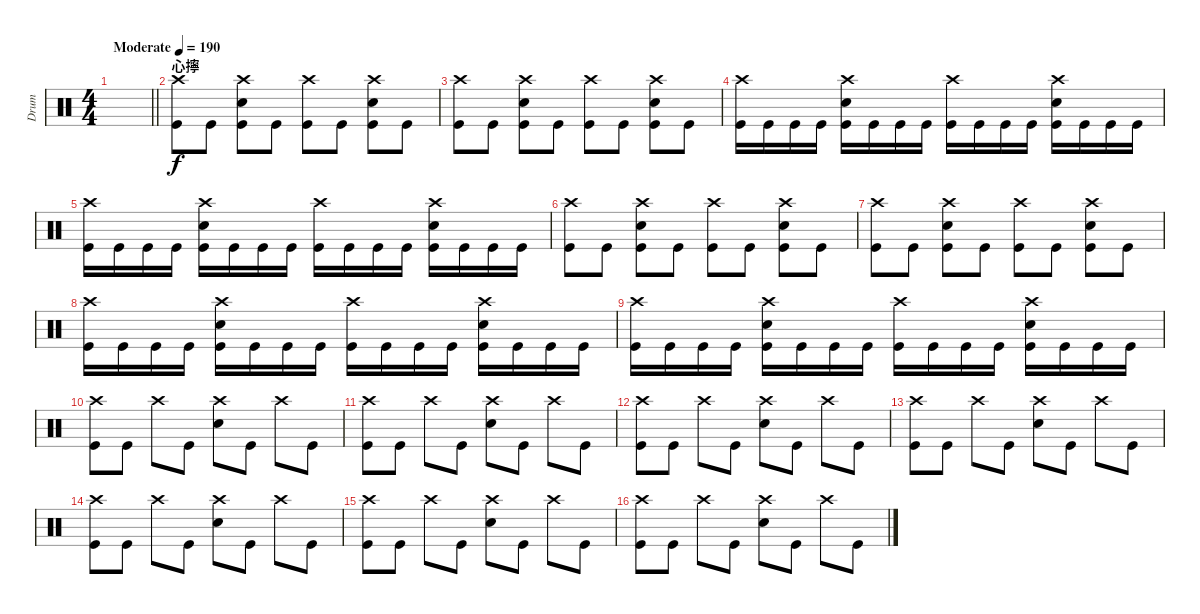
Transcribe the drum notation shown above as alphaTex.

\track ("Drum" "Drum") {instrument percussion}
\staff {score}
\articulation defaults
\ts (4 4)
\tempo (190 "Moderate")
\clef neutral
\barLineRight lightlight
\ks c
|
\section ("" "心擰")
("Crash high (hit)" "Kick (hit)").8 "Kick (hit)".8 ("Crash high (hit)" "Kick (hit)" "Snare (hit) 2").8 "Kick (hit)".8 ("Crash high (hit)" "Kick (hit)").8 "Kick (hit)".8 ("Snare (hit) 2" "Kick (hit)" "Crash high (hit)").8 "Kick (hit)".8 |
("Crash high (hit)" "Kick (hit)").8 "Kick (hit)".8 ("Crash high (hit)" "Kick (hit)" "Snare (hit) 2").8 "Kick (hit)".8 ("Crash high (hit)" "Kick (hit)").8 "Kick (hit)".8 ("Snare (hit) 2" "Kick (hit)" "Crash high (hit)").8 "Kick (hit)".8 |
("Crash high (hit)" "Kick (hit)").16 "Kick (hit)".16 "Kick (hit)".16 "Kick (hit)".16 ("Snare (hit) 2" "Crash high (hit)" "Kick (hit)").16 "Kick (hit)".16 "Kick (hit)".16 "Kick (hit)".16 ("Crash high (hit)" "Kick (hit)").16 "Kick (hit)".16 "Kick (hit)".16 "Kick (hit)".16 ("Snare (hit) 2" "Crash high (hit)" "Kick (hit)").16 "Kick (hit)".16 "Kick (hit)".16 "Kick (hit)".16 |
("Crash high (hit)" "Kick (hit)").16 "Kick (hit)".16 "Kick (hit)".16 "Kick (hit)".16 ("Snare (hit) 2" "Crash high (hit)" "Kick (hit)").16 "Kick (hit)".16 "Kick (hit)".16 "Kick (hit)".16 ("Crash high (hit)" "Kick (hit)").16 "Kick (hit)".16 "Kick (hit)".16 "Kick (hit)".16 ("Snare (hit) 2" "Crash high (hit)" "Kick (hit)").16 "Kick (hit)".16 "Kick (hit)".16 "Kick (hit)".16 |
("Crash high (hit)" "Kick (hit)").8 "Kick (hit)".8 ("Crash high (hit)" "Kick (hit)" "Snare (hit) 2").8 "Kick (hit)".8 ("Crash high (hit)" "Kick (hit)").8 "Kick (hit)".8 ("Snare (hit) 2" "Kick (hit)" "Crash high (hit)").8 "Kick (hit)".8 |
("Crash high (hit)" "Kick (hit)").8 "Kick (hit)".8 ("Crash high (hit)" "Kick (hit)" "Snare (hit) 2").8 "Kick (hit)".8 ("Crash high (hit)" "Kick (hit)").8 "Kick (hit)".8 ("Snare (hit) 2" "Kick (hit)" "Crash high (hit)").8 "Kick (hit)".8 |
("Crash high (hit)" "Kick (hit)").16 "Kick (hit)".16 "Kick (hit)".16 "Kick (hit)".16 ("Snare (hit) 2" "Crash high (hit)" "Kick (hit)").16 "Kick (hit)".16 "Kick (hit)".16 "Kick (hit)".16 ("Crash high (hit)" "Kick (hit)").16 "Kick (hit)".16 "Kick (hit)".16 "Kick (hit)".16 ("Snare (hit) 2" "Crash high (hit)" "Kick (hit)").16 "Kick (hit)".16 "Kick (hit)".16 "Kick (hit)".16 |
("Crash high (hit)" "Kick (hit)").16 "Kick (hit)".16 "Kick (hit)".16 "Kick (hit)".16 ("Snare (hit) 2" "Crash high (hit)" "Kick (hit)").16 "Kick (hit)".16 "Kick (hit)".16 "Kick (hit)".16 ("Crash high (hit)" "Kick (hit)").16 "Kick (hit)".16 "Kick (hit)".16 "Kick (hit)".16 ("Snare (hit) 2" "Crash high (hit)" "Kick (hit)").16 "Kick (hit)".16 "Kick (hit)".16 "Kick (hit)".16 |
("Crash high (hit)" "Kick (hit)").8 "Kick (hit)".8 "Crash high (hit)".8 "Kick (hit)".8 ("Snare (hit) 2" "Crash high (hit)").8 "Kick (hit)".8 "Crash high (hit)".8 "Kick (hit)".8 |
("Crash high (hit)" "Kick (hit)").8 "Kick (hit)".8 "Crash high (hit)".8 "Kick (hit)".8 ("Snare (hit) 2" "Crash high (hit)").8 "Kick (hit)".8 "Crash high (hit)".8 "Kick (hit)".8 |
("Crash high (hit)" "Kick (hit)").8 "Kick (hit)".8 "Crash high (hit)".8 "Kick (hit)".8 ("Snare (hit) 2" "Crash high (hit)").8 "Kick (hit)".8 "Crash high (hit)".8 "Kick (hit)".8 |
("Crash high (hit)" "Kick (hit)").8 "Kick (hit)".8 "Crash high (hit)".8 "Kick (hit)".8 ("Snare (hit) 2" "Crash high (hit)").8 "Kick (hit)".8 "Crash high (hit)".8 "Kick (hit)".8 |
("Crash high (hit)" "Kick (hit)").8 "Kick (hit)".8 "Crash high (hit)".8 "Kick (hit)".8 ("Snare (hit) 2" "Crash high (hit)").8 "Kick (hit)".8 "Crash high (hit)".8 "Kick (hit)".8 |
("Crash high (hit)" "Kick (hit)").8 "Kick (hit)".8 "Crash high (hit)".8 "Kick (hit)".8 ("Snare (hit) 2" "Crash high (hit)").8 "Kick (hit)".8 "Crash high (hit)".8 "Kick (hit)".8 |
("Crash high (hit)" "Kick (hit)").8 "Kick (hit)".8 "Crash high (hit)".8 "Kick (hit)".8 ("Snare (hit) 2" "Crash high (hit)").8 "Kick (hit)".8 "Crash high (hit)".8 "Kick (hit)".8
